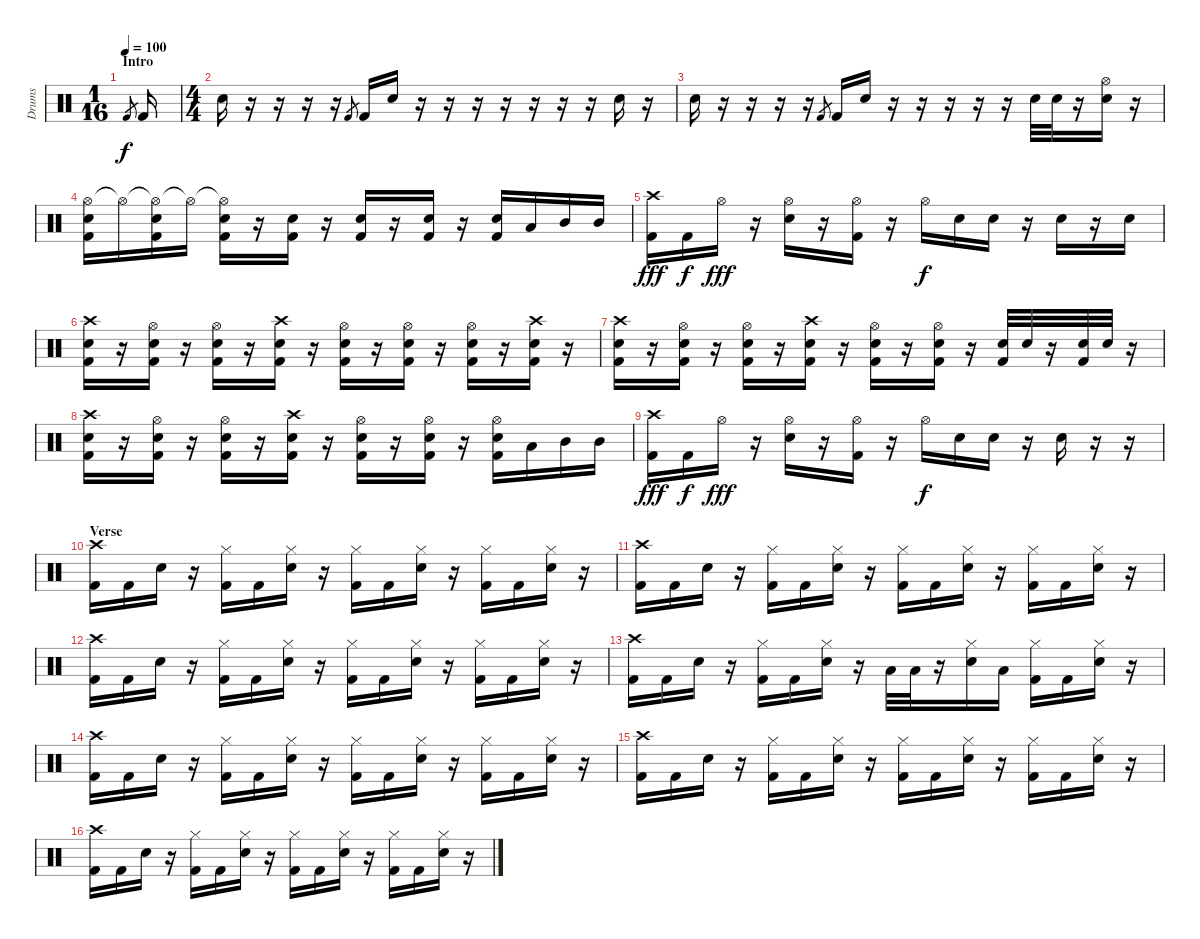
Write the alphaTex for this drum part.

\track ("Drums" "Drums") {instrument percussion}
\staff {score}
\articulation defaults
\ts (1 16)
\section ("" "Intro")
\tempo 100
\clef neutral
\ks c "Kick (hit) 2".8{gr dy f} "Kick (hit) 2".16
|
\ts (4 4)
"Electric Snare (hit)".16 r.16 r.16 r.16 r.16 "Kick (hit) 2".8{gr} "Kick (hit) 2".16 "Electric Snare (hit)".16 r.16 r.16 r.16 r.16 r.16 r.16 r.16 "Electric Snare (hit)".16 r.16 |
"Electric Snare (hit)".16 r.16 r.16 r.16 r.16 "Kick (hit) 2".8{gr} "Kick (hit) 2".16 "Electric Snare (hit)".16 r.16 r.16 r.16 r.16 r.16 "Electric Snare (hit)".32 "Electric Snare (hit)".32 r.16 ("Hi-Hat (open)" "Electric Snare (hit)").16 r.16 |
("Hi-Hat (open)" "Electric Snare (hit)" "Kick (hit) 2").16 "Hi-Hat (open)"{t}.16 ("Hi-Hat (open)"{t} "Electric Snare (hit)" "Kick (hit) 2").16 "Hi-Hat (open)"{t}.16 ("Hi-Hat (open)"{t} "Electric Snare (hit)" "Kick (hit) 2").16 r.16 ("Electric Snare (hit)" "Kick (hit) 2").16 r.16 ("Electric Snare (hit)" "Kick (hit) 2").16 r.16 ("Electric Snare (hit)" "Kick (hit) 2").16 r.16 ("Electric Snare (hit)" "Kick (hit) 2").16 "Low Tom (hit)".16 "Mid Tom (hit)".16 "Mid Tom (hit)".16 |
("Crash high (hit)" "Kick (hit) 2").16{dy fff} "Kick (hit) 2".16{dy f} "Hi-Hat (open)".16{dy fff} r.16 ("Hi-Hat (open)" "Electric Snare (hit)").16 r.16 ("Hi-Hat (open)" "Kick (hit) 2").16 r.16 "Hi-Hat (open)".16{dy f} "Electric Snare (hit)".16 "Electric Snare (hit)".16 r.16 "Electric Snare (hit)".16 r.16 "Electric Snare (hit)".16 |
("Crash high (hit)" "Electric Snare (hit)" "Kick (hit) 2").16 r.16 ("Hi-Hat (open)" "Electric Snare (hit)" "Kick (hit) 2").16 r.16 ("Hi-Hat (open)" "Electric Snare (hit)" "Kick (hit) 2").16 r.16 ("Crash high (hit)" "Electric Snare (hit)" "Kick (hit) 2").16 r.16 ("Hi-Hat (open)" "Electric Snare (hit)" "Kick (hit) 2").16 r.16 ("Hi-Hat (open)" "Electric Snare (hit)" "Kick (hit) 2").16 r.16 ("Hi-Hat (open)" "Electric Snare (hit)" "Kick (hit) 2").16 r.16 ("Crash high (hit)" "Electric Snare (hit)" "Kick (hit) 2").16 r.16 |
("Crash high (hit)" "Electric Snare (hit)" "Kick (hit) 2").16 r.16 ("Hi-Hat (open)" "Electric Snare (hit)" "Kick (hit) 2").16 r.16 ("Hi-Hat (open)" "Electric Snare (hit)" "Kick (hit) 2").16 r.16 ("Crash high (hit)" "Electric Snare (hit)" "Kick (hit) 2").16 r.16 ("Hi-Hat (open)" "Electric Snare (hit)" "Kick (hit) 2").16 r.16 ("Hi-Hat (open)" "Electric Snare (hit)" "Kick (hit) 2").16 r.16 ("Electric Snare (hit)" "Kick (hit) 2").32 "Electric Snare (hit)".32 r.16 ("Electric Snare (hit)" "Kick (hit) 2").32 "Electric Snare (hit)".32 r.16 |
("Crash high (hit)" "Electric Snare (hit)" "Kick (hit) 2").16 r.16 ("Hi-Hat (open)" "Electric Snare (hit)" "Kick (hit) 2").16 r.16 ("Hi-Hat (open)" "Electric Snare (hit)" "Kick (hit) 2").16 r.16 ("Crash high (hit)" "Electric Snare (hit)" "Kick (hit) 2").16 r.16 ("Hi-Hat (open)" "Electric Snare (hit)" "Kick (hit) 2").16 r.16 ("Hi-Hat (open)" "Electric Snare (hit)" "Kick (hit) 2").16 r.16 ("Hi-Hat (open)" "Electric Snare (hit)" "Kick (hit) 2").16 "Low Tom (hit)".16 "Mid Tom (hit)".16 "Mid Tom (hit)".16 |
("Crash high (hit)" "Kick (hit) 2").16{dy fff} "Kick (hit) 2".16{dy f} "Hi-Hat (open)".16{dy fff} r.16 ("Hi-Hat (open)" "Electric Snare (hit)").16 r.16 ("Hi-Hat (open)" "Kick (hit) 2").16 r.16 "Hi-Hat (open)".16{dy f} "Electric Snare (hit)".16 "Electric Snare (hit)".16 r.16 "Electric Snare (hit)".16 r.16 r.16 |
\section ("" "Verse")
("Crash high (hit)" "Kick (hit) 2").16{volume 16} "Kick (hit) 2".16 "Electric Snare (hit)".16 r.16 ("Hi-Hat (closed)" "Kick (hit) 2").16 "Kick (hit) 2".16 ("Hi-Hat (closed)" "Electric Snare (hit)").16 r.16 ("Hi-Hat (closed)" "Kick (hit) 2").16 "Kick (hit) 2".16 ("Hi-Hat (closed)" "Electric Snare (hit)").16 r.16 ("Hi-Hat (closed)" "Kick (hit) 2").16 "Kick (hit) 2".16 ("Hi-Hat (closed)" "Electric Snare (hit)").16 r.16 |
("Crash high (hit)" "Kick (hit) 2").16 "Kick (hit) 2".16 "Electric Snare (hit)".16 r.16 ("Hi-Hat (closed)" "Kick (hit) 2").16 "Kick (hit) 2".16 ("Hi-Hat (closed)" "Electric Snare (hit)").16 r.16 ("Hi-Hat (closed)" "Kick (hit) 2").16 "Kick (hit) 2".16 ("Hi-Hat (closed)" "Electric Snare (hit)").16 r.16 ("Hi-Hat (closed)" "Kick (hit) 2").16 "Kick (hit) 2".16 ("Hi-Hat (closed)" "Electric Snare (hit)").16 r.16 |
("Crash high (hit)" "Kick (hit) 2").16 "Kick (hit) 2".16 "Electric Snare (hit)".16 r.16 ("Hi-Hat (closed)" "Kick (hit) 2").16 "Kick (hit) 2".16 ("Hi-Hat (closed)" "Electric Snare (hit)").16 r.16 ("Hi-Hat (closed)" "Kick (hit) 2").16 "Kick (hit) 2".16 ("Hi-Hat (closed)" "Electric Snare (hit)").16 r.16 ("Hi-Hat (closed)" "Kick (hit) 2").16 "Kick (hit) 2".16 ("Hi-Hat (closed)" "Electric Snare (hit)").16 r.16 |
("Crash high (hit)" "Kick (hit) 2").16 "Kick (hit) 2".16 "Electric Snare (hit)".16 r.16 ("Hi-Hat (closed)" "Kick (hit) 2").16 "Kick (hit) 2".16 ("Hi-Hat (closed)" "Electric Snare (hit)").16 r.16 "Low Tom (hit)".32 "Low Tom (hit)".32 r.16 ("Hi-Hat (closed)" "Electric Snare (hit)").16 "Low Tom (hit)".16 ("Hi-Hat (closed)" "Kick (hit) 2").16 "Kick (hit) 2".16 ("Hi-Hat (closed)" "Electric Snare (hit)").16 r.16 |
("Crash high (hit)" "Kick (hit) 2").16{volume 16} "Kick (hit) 2".16 "Electric Snare (hit)".16 r.16 ("Hi-Hat (closed)" "Kick (hit) 2").16 "Kick (hit) 2".16 ("Hi-Hat (closed)" "Electric Snare (hit)").16 r.16 ("Hi-Hat (closed)" "Kick (hit) 2").16 "Kick (hit) 2".16 ("Hi-Hat (closed)" "Electric Snare (hit)").16 r.16 ("Hi-Hat (closed)" "Kick (hit) 2").16 "Kick (hit) 2".16 ("Hi-Hat (closed)" "Electric Snare (hit)").16 r.16 |
("Crash high (hit)" "Kick (hit) 2").16 "Kick (hit) 2".16 "Electric Snare (hit)".16 r.16 ("Hi-Hat (closed)" "Kick (hit) 2").16 "Kick (hit) 2".16 ("Hi-Hat (closed)" "Electric Snare (hit)").16 r.16 ("Hi-Hat (closed)" "Kick (hit) 2").16 "Kick (hit) 2".16 ("Hi-Hat (closed)" "Electric Snare (hit)").16 r.16 ("Hi-Hat (closed)" "Kick (hit) 2").16 "Kick (hit) 2".16 ("Hi-Hat (closed)" "Electric Snare (hit)").16 r.16 |
("Crash high (hit)" "Kick (hit) 2").16 "Kick (hit) 2".16 "Electric Snare (hit)".16 r.16 ("Hi-Hat (closed)" "Kick (hit) 2").16 "Kick (hit) 2".16 ("Hi-Hat (closed)" "Electric Snare (hit)").16 r.16 ("Hi-Hat (closed)" "Kick (hit) 2").16 "Kick (hit) 2".16 ("Hi-Hat (closed)" "Electric Snare (hit)").16 r.16 ("Hi-Hat (closed)" "Kick (hit) 2").16 "Kick (hit) 2".16 ("Hi-Hat (closed)" "Electric Snare (hit)").16 r.16
